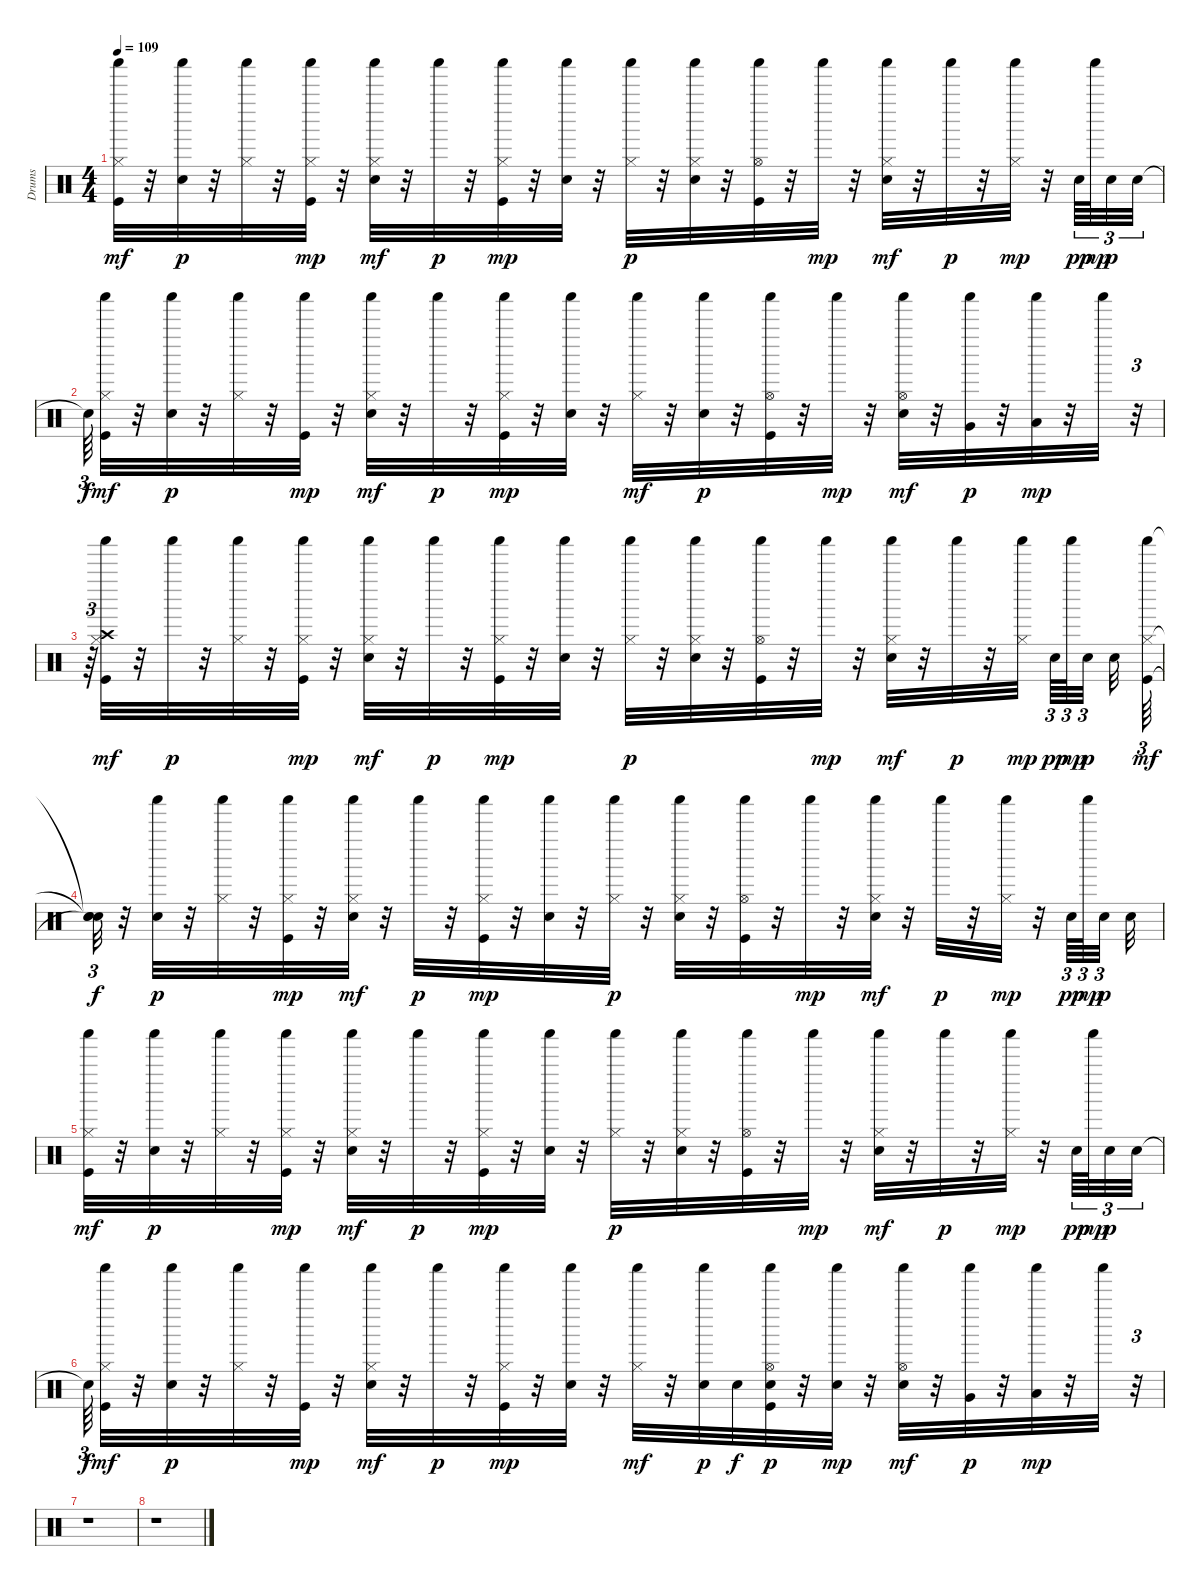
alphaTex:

\track ("Drums" "Drums") {instrument percussion}
\staff {score}
\articulation defaults
\ts (4 4)
\tempo 109
\clef neutral
\ks c
("Kick (hit)" "Hi-Hat (closed)" "Shaker (hit)").32{dy mf} r.32 ("Snare (hit) 2" "Shaker (hit)").32{dy p} r.32 ("Hi-Hat (closed)" "Shaker (hit)").32 r.32 ("Kick (hit)" "Hi-Hat (closed)" "Shaker (hit)").32{dy mp} r.32 ("Snare (hit) 2" "Hi-Hat (closed)" "Shaker (hit)").32{dy mf} r.32 "Shaker (hit)".32{dy p} r.32 ("Kick (hit)" "Hi-Hat (closed)" "Shaker (hit)").32{dy mp} r.32 ("Snare (hit) 2" "Shaker (hit)").32 r.32 ("Hi-Hat (closed)" "Shaker (hit)").32{dy p} r.32 ("Snare (hit) 2" "Hi-Hat (closed)" "Shaker (hit)").32 r.32 ("Kick (hit)" "Hi-Hat (open)" "Shaker (hit)").32 r.32 "Shaker (hit)".32{dy mp} r.32 ("Snare (hit) 2" "Hi-Hat (closed)" "Shaker (hit)").32{dy mf} r.32 "Shaker (hit)".32{dy p} r.32 ("Hi-Hat (closed)" "Shaker (hit)").32{dy mp} r.32 "Snare (hit) 2".64{tu (3 2) dy pp} "Shaker (hit)".64{tu (3 2) dy mp} "Snare (hit) 2".32{tu (3 2) dy p} "Snare (hit) 2".32{tu (3 2)} |
"Snare (hit)"{t}.64{tu (3 2) dy f} ("Kick (hit)" "Hi-Hat (closed)" "Shaker (hit)").32{dy mf} r.32 ("Snare (hit) 2" "Shaker (hit)").32{dy p} r.32 ("Hi-Hat (closed)" "Shaker (hit)").32 r.32 ("Kick (hit)" "Shaker (hit)").32{dy mp} r.32 ("Snare (hit) 2" "Hi-Hat (closed)" "Shaker (hit)").32{dy mf} r.32 "Shaker (hit)".32{dy p} r.32 ("Kick (hit)" "Hi-Hat (closed)" "Shaker (hit)").32{dy mp} r.32 ("Snare (hit) 2" "Shaker (hit)").32 r.32 ("Hi-Hat (closed)" "Shaker (hit)").32{dy mf} r.32 ("Snare (hit) 2" "Shaker (hit)").32{dy p} r.32 ("Kick (hit)" "Hi-Hat (open)" "Shaker (hit)").32 r.32 "Shaker (hit)".32{dy mp} r.32 ("Snare (hit) 2" "Hi-Hat (open)" "Shaker (hit)").32{dy mf} r.32 ("Very Low Tom (hit)" "Shaker (hit)").32{dy p} r.32 ("Low Floor Tom (hit)" "Shaker (hit)").32{dy mp} r.32 "Shaker (hit)".32 r.32{tu (3 2)} |
r.64{tu (3 2)} ("Kick (hit)" "Crash high (hit)" "Hi-Hat (closed)" "Shaker (hit)").32{dy mf} r.32 "Shaker (hit)".32{dy p} r.32 ("Hi-Hat (closed)" "Shaker (hit)").32 r.32 ("Kick (hit)" "Hi-Hat (closed)" "Shaker (hit)").32{dy mp} r.32 ("Snare (hit) 2" "Hi-Hat (closed)" "Shaker (hit)").32{dy mf} r.32 "Shaker (hit)".32{dy p} r.32 ("Kick (hit)" "Hi-Hat (closed)" "Shaker (hit)").32{dy mp} r.32 ("Snare (hit) 2" "Shaker (hit)").32 r.32 ("Hi-Hat (closed)" "Shaker (hit)").32{dy p} r.32 ("Snare (hit) 2" "Hi-Hat (closed)" "Shaker (hit)").32 r.32 ("Kick (hit)" "Hi-Hat (open)" "Shaker (hit)").32 r.32 "Shaker (hit)".32{dy mp} r.32 ("Snare (hit) 2" "Hi-Hat (closed)" "Shaker (hit)").32{dy mf} r.32 "Shaker (hit)".32{dy p} r.32 ("Hi-Hat (closed)" "Shaker (hit)").32{dy mp beam splitsecondary} "Snare (hit) 2".64{tu (3 2) dy pp} "Shaker (hit)".64{tu (3 2) dy mp} "Snare (hit) 2".32{tu (3 2) dy p beam splitsecondary} "Snare (hit) 2".32 ("Kick (hit)" "Hi-Hat (closed)" "Shaker (hit)").64{tu (3 2) dy mf} |
("Snare (hit)"{t} "Snare (hit)"{t} "Snare (hit)"{t}).32{tu (3 2) dy f} r.32 ("Snare (hit) 2" "Shaker (hit)").32{dy p} r.32 ("Hi-Hat (closed)" "Shaker (hit)").32 r.32 ("Kick (hit)" "Hi-Hat (closed)" "Shaker (hit)").32{dy mp} r.32 ("Snare (hit) 2" "Hi-Hat (closed)" "Shaker (hit)").32{dy mf} r.32 "Shaker (hit)".32{dy p} r.32 ("Kick (hit)" "Hi-Hat (closed)" "Shaker (hit)").32{dy mp} r.32 ("Snare (hit) 2" "Shaker (hit)").32 r.32 ("Hi-Hat (closed)" "Shaker (hit)").32{dy p} r.32 ("Snare (hit) 2" "Hi-Hat (closed)" "Shaker (hit)").32 r.32 ("Kick (hit)" "Hi-Hat (open)" "Shaker (hit)").32 r.32 "Shaker (hit)".32{dy mp} r.32 ("Snare (hit) 2" "Hi-Hat (closed)" "Shaker (hit)").32{dy mf} r.32 "Shaker (hit)".32{dy p} r.32 ("Hi-Hat (closed)" "Shaker (hit)").32{dy mp} r.32 "Snare (hit) 2".64{tu (3 2) dy pp} "Shaker (hit)".64{tu (3 2) dy mp} "Snare (hit) 2".32{tu (3 2) dy p beam splitsecondary} "Snare (hit) 2".32 |
("Kick (hit)" "Hi-Hat (closed)" "Shaker (hit)").32{dy mf} r.32 ("Snare (hit) 2" "Shaker (hit)").32{dy p} r.32 ("Hi-Hat (closed)" "Shaker (hit)").32 r.32 ("Kick (hit)" "Hi-Hat (closed)" "Shaker (hit)").32{dy mp} r.32 ("Snare (hit) 2" "Hi-Hat (closed)" "Shaker (hit)").32{dy mf} r.32 "Shaker (hit)".32{dy p} r.32 ("Kick (hit)" "Hi-Hat (closed)" "Shaker (hit)").32{dy mp} r.32 ("Snare (hit) 2" "Shaker (hit)").32 r.32 ("Hi-Hat (closed)" "Shaker (hit)").32{dy p} r.32 ("Snare (hit) 2" "Hi-Hat (closed)" "Shaker (hit)").32 r.32 ("Kick (hit)" "Hi-Hat (open)" "Shaker (hit)").32 r.32 "Shaker (hit)".32{dy mp} r.32 ("Snare (hit) 2" "Hi-Hat (closed)" "Shaker (hit)").32{dy mf} r.32 "Shaker (hit)".32{dy p} r.32 ("Hi-Hat (closed)" "Shaker (hit)").32{dy mp} r.32 "Snare (hit) 2".64{tu (3 2) dy pp} "Shaker (hit)".64{tu (3 2) dy mp} "Snare (hit) 2".32{tu (3 2) dy p} "Snare (hit) 2".32{tu (3 2)} |
"Snare (hit)"{t}.64{tu (3 2) dy f} ("Kick (hit)" "Hi-Hat (closed)" "Shaker (hit)").32{dy mf} r.32 ("Snare (hit) 2" "Shaker (hit)").32{dy p} r.32 ("Hi-Hat (closed)" "Shaker (hit)").32 r.32 ("Kick (hit)" "Shaker (hit)").32{dy mp} r.32 ("Snare (hit) 2" "Hi-Hat (closed)" "Shaker (hit)").32{dy mf} r.32 "Shaker (hit)".32{dy p} r.32 ("Kick (hit)" "Hi-Hat (closed)" "Shaker (hit)").32{dy mp} r.32 ("Snare (hit) 2" "Shaker (hit)").32 r.32 ("Hi-Hat (closed)" "Shaker (hit)").32{dy mf} r.32 ("Snare (hit) 2" "Shaker (hit)").32{dy p} "Snare (hit) 2".32{dy f} ("Kick (hit)" "Snare (hit) 2" "Hi-Hat (open)" "Shaker (hit)").32{dy p} r.32 ("Snare (hit) 2" "Shaker (hit)").32{dy mp} r.32 ("Snare (hit) 2" "Hi-Hat (open)" "Shaker (hit)").32{dy mf} r.32 ("Very Low Tom (hit)" "Shaker (hit)").32{dy p} r.32 ("Low Floor Tom (hit)" "Shaker (hit)").32{dy mp} r.32 "Shaker (hit)".32 r.32{tu (3 2)} |
r.1 |
r.1
